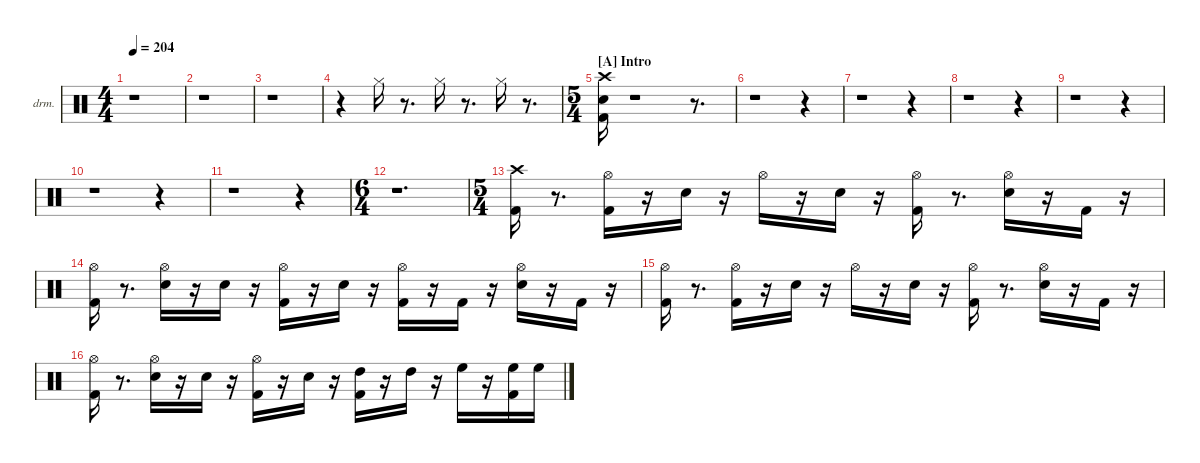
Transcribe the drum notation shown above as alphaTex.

\hideDynamics
\bracketExtendMode nobrackets
\firstSystemTrackNameOrientation horizontal
\track ("drums" "drm.") {instrument percussion}
\staff {score}
\articulation defaults
\ts (4 4)
\tempo 204
\clef neutral
\ks aminor
r.1{dy f beam Down} |
r.1{beam Down} |
r.1{beam Down} |
r.4{beam Down} "Hi-Hat (closed)"{acc #}.16{beam Down} r.8{d beam Down} "Hi-Hat (closed)"{acc #}.16{dy mf beam Down} r.8{d beam Down} "Hi-Hat (closed)"{acc #}.16{dy f beam Down} r.8{d beam Down} |
\ts (5 4)
\section ("A" "Intro")
("Kick (hit) 2" "Snare (hit) 2" "Crash high (hit)"{acc #}).16{dy fff beam Down} r.1{beam Down} r.8{d beam Down} |
r.1{beam Down} r.4{beam Down} |
r.1{beam Down} r.4{beam Down} |
r.1{beam Down} r.4{beam Down} |
r.1{beam Down} r.4{beam Down} |
r.1{beam Down} r.4{beam Down} |
r.1{beam Down} r.4{beam Down} |
\ts (6 4)
r.1{d beam Down} |
\ts (5 4)
("Kick (hit) 2" "Crash high (hit)"{acc #}).16{beam Down} r.8{d beam Down} ("Kick (hit) 2" "Hi-Hat (open)"{acc #}).16{dy f beam Down} r.16{beam Down} "Snare (hit) 2".16{dy ff beam Down} r.16{beam Down} "Hi-Hat (open)"{acc #}.16{dy f beam Down} r.16{beam Down} "Snare (hit) 2".16{beam Down} r.16{beam Down} ("Kick (hit) 2" "Hi-Hat (open)"{acc #}).16{dy ff beam Down} r.8{d beam Down} ("Snare (hit) 2" "Hi-Hat (open)"{acc #}).16{beam Down} r.16{beam Down} "Kick (hit) 2".16{dy mf beam Down} r.16{beam Down} |
("Kick (hit) 2" "Hi-Hat (open)"{acc #}).16{dy fff beam Down} r.8{d beam Down} ("Snare (hit) 2" "Hi-Hat (open)"{acc #}).16{dy ff beam Down} r.16{beam Down} "Snare (hit) 2".16{dy mp beam Down} r.16{beam Down} ("Kick (hit) 2" "Hi-Hat (open)"{acc #}).16{dy ff beam Down} r.16{beam Down} "Snare (hit) 2".16{dy mf beam Down} r.16{beam Down} ("Kick (hit) 2" "Hi-Hat (open)"{acc #}).16{beam Down} r.16{beam Down} "Kick (hit) 2".16{dy fff beam Down} r.16{beam Down} ("Snare (hit) 2" "Hi-Hat (open)"{acc #}).16{dy ff beam Down} r.16{beam Down} "Kick (hit) 2".16{dy mp beam Down} r.16{beam Down} |
("Kick (hit) 2" "Hi-Hat (open)"{acc #}).16{dy fff beam Down} r.8{d beam Down} ("Kick (hit) 2" "Hi-Hat (open)"{acc #}).16{dy f beam Down} r.16{beam Down} "Snare (hit) 2".16{dy ff beam Down} r.16{beam Down} "Hi-Hat (open)"{acc #}.16{dy f beam Down} r.16{beam Down} "Snare (hit) 2".16{beam Down} r.16{beam Down} ("Kick (hit) 2" "Hi-Hat (open)"{acc #}).16{dy ff beam Down} r.8{d beam Down} ("Snare (hit) 2" "Hi-Hat (open)"{acc #}).16{beam Down} r.16{beam Down} "Kick (hit) 2".16{dy mf beam Down} r.16{beam Down} |
("Kick (hit) 2" "Hi-Hat (open)"{acc #}).16{dy fff beam Down} r.8{d beam Down} ("Snare (hit) 2" "Hi-Hat (open)"{acc #}).16{dy ff beam Down} r.16{beam Down} "Snare (hit) 2".16{dy mp beam Down} r.16{beam Down} ("Kick (hit) 2" "Hi-Hat (open)"{acc #}).16{dy ff beam Down} r.16{beam Down} "Snare (hit) 2".16{dy mf beam Down} r.16{beam Down} ("Kick (hit) 2" "High Tom (hit)").16{dy fff beam Down} r.16{beam Down} "High Tom (hit)".16{dy mp beam Down} r.16{beam Down} "High Floor Tom (hit)".16{dy ff beam Down} r.16{beam Down} ("Kick (hit) 2" "High Floor Tom (hit)").16{dy mp beam Down} "High Floor Tom (hit)".16{dy pp beam Down}
